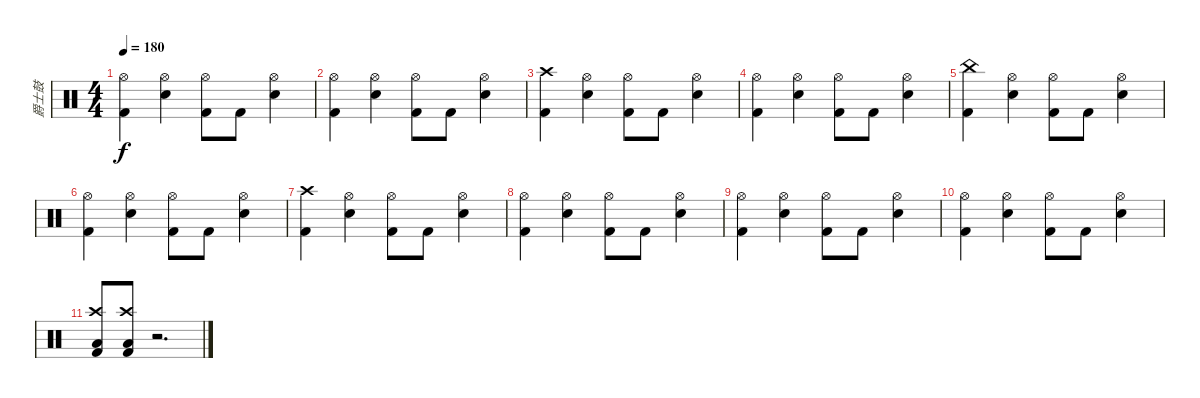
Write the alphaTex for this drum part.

\track ("爵士鼓" "爵士鼓") {instrument percussion}
\staff {score}
\articulation defaults
\ts (4 4)
\tempo 180
\clef neutral
\ks c
("Hi-Hat (open)" "Kick (hit) 2").4{dy f} ("Hi-Hat (open)" "Snare (hit) 2").4 ("Hi-Hat (open)" "Kick (hit) 2").8 "Kick (hit) 2".8 ("Hi-Hat (open)" "Snare (hit) 2").4 |
("Hi-Hat (open)" "Kick (hit) 2").4 ("Hi-Hat (open)" "Snare (hit) 2").4 ("Hi-Hat (open)" "Kick (hit) 2").8 "Kick (hit) 2".8 ("Hi-Hat (open)" "Snare (hit) 2").4 |
("Crash high (hit)" "Kick (hit) 2").4 ("Hi-Hat (open)" "Snare (hit) 2").4 ("Hi-Hat (open)" "Kick (hit) 2").8 "Kick (hit) 2".8 ("Hi-Hat (open)" "Snare (hit) 2").4 |
("Hi-Hat (open)" "Kick (hit) 2").4 ("Hi-Hat (open)" "Snare (hit) 2").4 ("Hi-Hat (open)" "Kick (hit) 2").8 "Kick (hit) 2".8 ("Hi-Hat (open)" "Snare (hit) 2").4 |
("China (hit)" "Kick (hit) 2").4 ("Hi-Hat (open)" "Snare (hit) 2").4 ("Hi-Hat (open)" "Kick (hit) 2").8 "Kick (hit) 2".8 ("Hi-Hat (open)" "Snare (hit) 2").4 |
("Hi-Hat (open)" "Kick (hit) 2").4 ("Hi-Hat (open)" "Snare (hit) 2").4 ("Hi-Hat (open)" "Kick (hit) 2").8 "Kick (hit) 2".8 ("Hi-Hat (open)" "Snare (hit) 2").4 |
("Crash high (hit)" "Kick (hit) 2").4 ("Hi-Hat (open)" "Snare (hit) 2").4 ("Hi-Hat (open)" "Kick (hit) 2").8 "Kick (hit) 2".8 ("Hi-Hat (open)" "Snare (hit) 2").4 |
("Hi-Hat (open)" "Kick (hit) 2").4 ("Hi-Hat (open)" "Snare (hit) 2").4 ("Hi-Hat (open)" "Kick (hit) 2").8 "Kick (hit) 2".8 ("Hi-Hat (open)" "Snare (hit) 2").4 |
("Hi-Hat (open)" "Kick (hit) 2").4 ("Hi-Hat (open)" "Snare (hit) 2").4 ("Hi-Hat (open)" "Kick (hit) 2").8 "Kick (hit) 2".8 ("Hi-Hat (open)" "Snare (hit) 2").4 |
("Hi-Hat (open)" "Kick (hit) 2").4 ("Hi-Hat (open)" "Snare (hit) 2").4 ("Hi-Hat (open)" "Kick (hit) 2").8 "Kick (hit) 2".8 ("Hi-Hat (open)" "Snare (hit) 2").4 |
("Crash high (hit)" "Low Floor Tom (hit)" "Kick (hit) 2").8 ("Crash high (hit)" "Low Floor Tom (hit)" "Kick (hit) 2").8 r.2{d}
